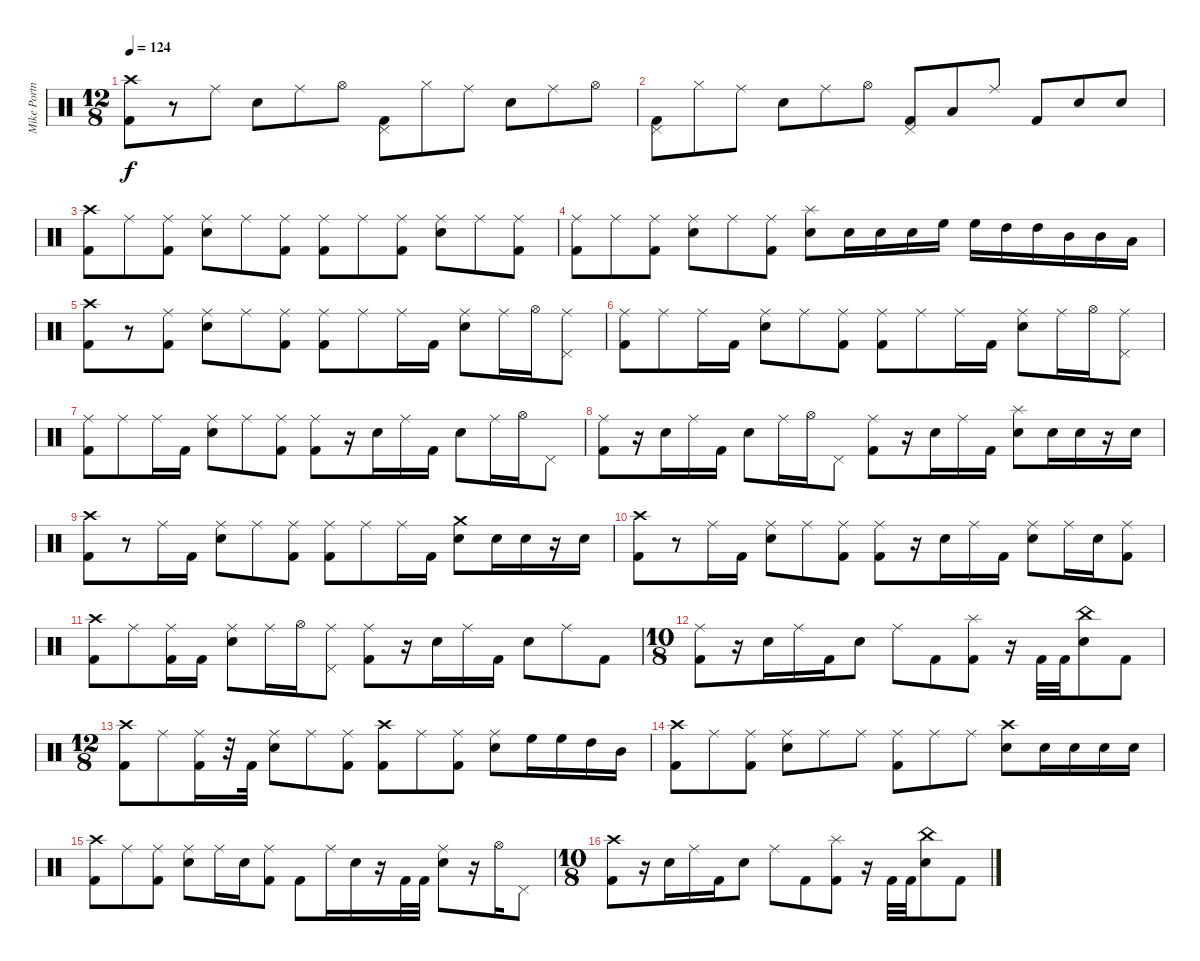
\track ("Mike Portnoy - Drums" "Mike Portn") {instrument percussion}
\staff {score}
\articulation defaults
\ts (12 8)
\tempo 124
\clef neutral
\ks c
("Crash high (hit)" "Kick (hit) 2").8{dy f} r.8 "Ride (middle)".8 "Electric Snare (hit)".8 "Ride (middle)".8 "Hi-Hat (open)".8 ("Pedal Hi-Hat (hit)" "Kick (hit) 2").8 "Hi-Hat (closed)".8 "Ride (middle)".8 "Electric Snare (hit)".8 "Ride (middle)".8 "Hi-Hat (open)".8 |
("Pedal Hi-Hat (hit)" "Kick (hit) 2").8 "Hi-Hat (closed)".8 "Ride (middle)".8 "Electric Snare (hit)".8 "Ride (middle)".8 "Hi-Hat (open)".8 ("Pedal Hi-Hat (hit)" "Kick (hit) 2").8 "Low Floor Tom (hit)".8 "Ride (middle)".8 "Kick (hit) 2".8 "Electric Snare (hit)".8 "Electric Snare (hit)".8 |
("Crash high (hit)" "Kick (hit) 2").8 "Ride (middle)".8 ("Ride (middle)" "Kick (hit) 2").8 ("Ride (middle)" "Electric Snare (hit)").8 "Ride (middle)".8 ("Ride (middle)" "Kick (hit) 2").8 ("Ride (middle)" "Kick (hit) 2").8 "Ride (middle)".8 ("Ride (middle)" "Kick (hit) 2").8 ("Ride (middle)" "Electric Snare (hit)").8 "Ride (middle)".8 ("Ride (middle)" "Kick (hit) 2").8 |
("Ride (middle)" "Kick (hit) 2").8 "Ride (middle)".8 ("Ride (middle)" "Kick (hit) 2").8 ("Ride (middle)" "Electric Snare (hit)").8 "Ride (middle)".8 ("Ride (middle)" "Kick (hit) 2").8 ("Splash (hit)" "Electric Snare (hit)").8 "Electric Snare (hit)".16 "Electric Snare (hit)".16 "Electric Snare (hit)".16 "High Floor Tom (hit)".16 "High Floor Tom (hit)".16 "High Tom (hit)".16 "High Tom (hit)".16 "Mid Tom (hit)".16 "Mid Tom (hit)".16 "Low Tom (hit)".16 |
("Crash high (hit)" "Kick (hit) 2").8 r.8 ("Ride (middle)" "Kick (hit) 2").8 ("Ride (middle)" "Electric Snare (hit)").8 "Ride (middle)".8 ("Ride (middle)" "Kick (hit) 2").8 ("Ride (middle)" "Kick (hit) 2").8 "Ride (middle)".8 "Ride (middle)".16 "Kick (hit) 2".16 ("Ride (middle)" "Electric Snare (hit)").8 "Ride (middle)".16 "Hi-Hat (open)".16 ("Ride (middle)" "Pedal Hi-Hat (hit)").8 |
("Ride (middle)" "Kick (hit) 2").8 "Ride (middle)".8 "Ride (middle)".16 "Kick (hit) 2".16 ("Ride (middle)" "Electric Snare (hit)").8 "Ride (middle)".8 ("Ride (middle)" "Kick (hit) 2").8 ("Ride (middle)" "Kick (hit) 2").8 "Ride (middle)".8 "Ride (middle)".16 "Kick (hit) 2".16 ("Ride (middle)" "Electric Snare (hit)").8 "Ride (middle)".16 "Hi-Hat (open)".16 ("Ride (middle)" "Pedal Hi-Hat (hit)").8 |
("Ride (middle)" "Kick (hit) 2").8 "Ride (middle)".8 "Ride (middle)".16 "Kick (hit) 2".16 ("Ride (middle)" "Electric Snare (hit)").8 "Ride (middle)".8 ("Ride (middle)" "Kick (hit) 2").8 ("Ride (middle)" "Kick (hit) 2").8 r.16 "Electric Snare (hit)".16 "Ride (middle)".16 "Kick (hit) 2".16 "Electric Snare (hit)".8 "Ride (middle)".16 "Hi-Hat (open)".16 "Pedal Hi-Hat (hit)".8 |
("Ride (middle)" "Kick (hit) 2").8 r.16 "Electric Snare (hit)".16 "Ride (middle)".16 "Kick (hit) 2".16 "Electric Snare (hit)".8 "Ride (middle)".16 "Hi-Hat (open)".16 "Pedal Hi-Hat (hit)".8 ("Ride (middle)" "Kick (hit) 2").8 r.16 "Electric Snare (hit)".16 "Ride (middle)".16 "Kick (hit) 2".16 ("Splash (hit)" "Electric Snare (hit)").8 "Electric Snare (hit)".16 "Electric Snare (hit)".16 r.16 "Electric Snare (hit)".16 |
("Crash high (hit)" "Kick (hit) 2").8 r.8 "Ride (middle)".16 "Kick (hit) 2".16 ("Ride (middle)" "Electric Snare (hit)").8 "Ride (middle)".8 ("Ride (middle)" "Kick (hit) 2").8 ("Ride (middle)" "Kick (hit) 2").8 "Ride (middle)".8 "Ride (middle)".16 "Kick (hit) 2".16 ("Crash medium (hit)" "Electric Snare (hit)").8 "Electric Snare (hit)".16 "Electric Snare (hit)".16 r.16 "Electric Snare (hit)".16 |
("Crash high (hit)" "Kick (hit) 2").8 r.8 "Ride (middle)".16 "Kick (hit) 2".16 ("Ride (middle)" "Electric Snare (hit)").8 "Ride (middle)".8 ("Ride (middle)" "Kick (hit) 2").8 ("Ride (middle)" "Kick (hit) 2").8 r.16 "Electric Snare (hit)".16 "Ride (middle)".16 "Kick (hit) 2".16 ("Ride (middle)" "Electric Snare (hit)").8 "Ride (middle)".16 "Electric Snare (hit)".16 ("Ride (middle)" "Kick (hit) 2").8 |
("Crash high (hit)" "Kick (hit) 2").8 "Ride (middle)".8 ("Ride (middle)" "Kick (hit) 2").16 "Kick (hit) 2".16 ("Ride (middle)" "Electric Snare (hit)").8 "Ride (middle)".16 "Hi-Hat (open)".16 ("Ride (middle)" "Pedal Hi-Hat (hit)").8 ("Ride (middle)" "Kick (hit) 2").8 r.16 "Electric Snare (hit)".16 "Ride (middle)".16 "Kick (hit) 2".16 "Electric Snare (hit)".8 "Ride (middle)".8 "Kick (hit) 2".8 |
\ts (10 8)
("Ride (middle)" "Kick (hit) 2").8 r.16 "Electric Snare (hit)".16 "Ride (middle)".16 "Kick (hit) 2".16 "Electric Snare (hit)".8 "Ride (middle)".8 "Kick (hit) 2".8 ("Splash (hit)" "Kick (hit) 2").8 r.16 "Kick (hit) 2".32 "Kick (hit) 2".32 ("China (hit)" "Electric Snare (hit)").8 "Kick (hit) 2".8 |
\ts (12 8)
("Crash high (hit)" "Kick (hit) 2").8 "Ride (middle)".8 ("Ride (middle)" "Kick (hit) 2").16 r.32 "Kick (hit) 2".32 ("Ride (middle)" "Electric Snare (hit)").8 "Ride (middle)".8 ("Ride (middle)" "Kick (hit) 2").8 ("Crash high (hit)" "Kick (hit) 2").8 "Ride (middle)".8 ("Ride (middle)" "Kick (hit) 2").8 ("Ride (middle)" "Electric Snare (hit)").8 "High Floor Tom (hit)".16 "High Floor Tom (hit)".16 "High Tom (hit)".16 "Mid Tom (hit)".16 |
("Crash high (hit)" "Kick (hit) 2").8 "Ride (middle)".8 ("Ride (middle)" "Kick (hit) 2").8 ("Ride (middle)" "Electric Snare (hit)").8 "Ride (middle)".8 "Ride (middle)".8 ("Ride (middle)" "Kick (hit) 2").8 "Ride (middle)".8 "Ride (middle)".8 ("Crash high (hit)" "Electric Snare (hit)").8 "Electric Snare (hit)".16 "Electric Snare (hit)".16 "Electric Snare (hit)".16 "Electric Snare (hit)".16 |
("Crash high (hit)" "Kick (hit) 2").8 "Ride (middle)".8 ("Ride (middle)" "Kick (hit) 2").8 ("Ride (middle)" "Electric Snare (hit)").8 "Ride (middle)".16 "Electric Snare (hit)".16 ("Ride (middle)" "Kick (hit) 2").8 "Kick (hit) 2".8 "Ride (middle)".16 "Electric Snare (hit)".16 r.16 "Kick (hit) 2".32 "Kick (hit) 2".32 ("Ride (middle)" "Electric Snare (hit)").8 r.16 "Hi-Hat (open)".16 "Pedal Hi-Hat (hit)".8 |
\ts (10 8)
("Crash high (hit)" "Kick (hit) 2").8 r.16 "Electric Snare (hit)".16 "Ride (middle)".16 "Kick (hit) 2".16 "Electric Snare (hit)".8 "Ride (middle)".8 "Kick (hit) 2".8 ("Splash (hit)" "Kick (hit) 2").8 r.16 "Kick (hit) 2".32 "Kick (hit) 2".32 ("China (hit)" "Electric Snare (hit)").8 "Kick (hit) 2".8
